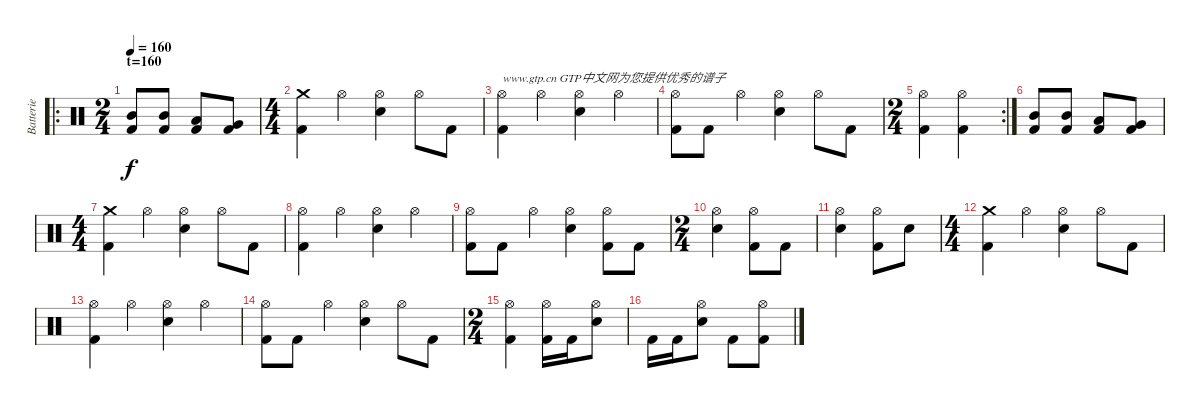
\track ("Batterie" "Batterie") {instrument percussion}
\staff {score}
\articulation defaults
\ro
\ts (2 4)
\section ("" "t=160")
\tempo 160
\clef neutral
\ks c
("Mid Tom (hit)" "Kick (hit) 2").8{dy f} ("Mid Tom (hit)" "Kick (hit) 2").8 ("Low Tom (hit)" "Kick (hit) 2").8 ("Very Low Tom (hit)" "Kick (hit) 2").8 |
\ts (4 4)
("Crash medium (hit)" "Kick (hit) 2").4 "Hi-Hat (open)".4 ("Hi-Hat (open)" "Electric Snare (hit)").4 "Hi-Hat (open)".8 "Kick (hit) 2".8 |
("Hi-Hat (open)" "Kick (hit) 2").4{txt "www.gtp.cn GTP中文网为您提供优秀的谱子"} "Hi-Hat (open)".4 ("Hi-Hat (open)" "Electric Snare (hit)").4 "Hi-Hat (open)".4 |
("Hi-Hat (open)" "Kick (hit) 2").8 "Kick (hit) 2".8 "Hi-Hat (open)".4 ("Hi-Hat (open)" "Electric Snare (hit)").4 "Hi-Hat (open)".8 "Kick (hit) 2".8 |
\rc 2
\ts (2 4)
("Hi-Hat (open)" "Kick (hit) 2").4 ("Hi-Hat (open)" "Kick (hit) 2").4 |
("Mid Tom (hit)" "Kick (hit) 2").8 ("Mid Tom (hit)" "Kick (hit) 2").8 ("Low Tom (hit)" "Kick (hit) 2").8 ("Very Low Tom (hit)" "Kick (hit) 2").8 |
\ts (4 4)
("Crash medium (hit)" "Kick (hit) 2").4 "Hi-Hat (open)".4 ("Hi-Hat (open)" "Electric Snare (hit)").4 "Hi-Hat (open)".8 "Kick (hit) 2".8 |
("Hi-Hat (open)" "Kick (hit) 2").4 "Hi-Hat (open)".4 ("Hi-Hat (open)" "Electric Snare (hit)").4 "Hi-Hat (open)".4 |
("Hi-Hat (open)" "Kick (hit) 2").8 "Kick (hit) 2".8 "Hi-Hat (open)".4 ("Hi-Hat (open)" "Electric Snare (hit)").4 ("Hi-Hat (open)" "Kick (hit) 2").8 "Kick (hit) 2".8 |
\ts (2 4)
("Hi-Hat (open)" "Electric Snare (hit)").4 ("Hi-Hat (open)" "Kick (hit) 2").8 "Kick (hit) 2".8 |
("Hi-Hat (open)" "Electric Snare (hit)").4 ("Hi-Hat (open)" "Kick (hit) 2").8 "Electric Snare (hit)".8 |
\ts (4 4)
("Crash medium (hit)" "Kick (hit) 2").4 "Hi-Hat (open)".4 ("Hi-Hat (open)" "Electric Snare (hit)").4 "Hi-Hat (open)".8 "Kick (hit) 2".8 |
("Hi-Hat (open)" "Kick (hit) 2").4 "Hi-Hat (open)".4 ("Hi-Hat (open)" "Electric Snare (hit)").4 "Hi-Hat (open)".4 |
("Hi-Hat (open)" "Kick (hit) 2").8 "Kick (hit) 2".8 "Hi-Hat (open)".4 ("Hi-Hat (open)" "Electric Snare (hit)").4 "Hi-Hat (open)".8 "Kick (hit) 2".8 |
\ts (2 4)
("Hi-Hat (open)" "Kick (hit) 2").4 ("Hi-Hat (open)" "Kick (hit) 2").16 "Kick (hit) 2".16 ("Hi-Hat (open)" "Electric Snare (hit)").8 |
"Kick (hit) 2".16 "Kick (hit) 2".16 ("Hi-Hat (open)" "Electric Snare (hit)").8 "Kick (hit) 2".8 ("Hi-Hat (open)" "Kick (hit) 2").8
